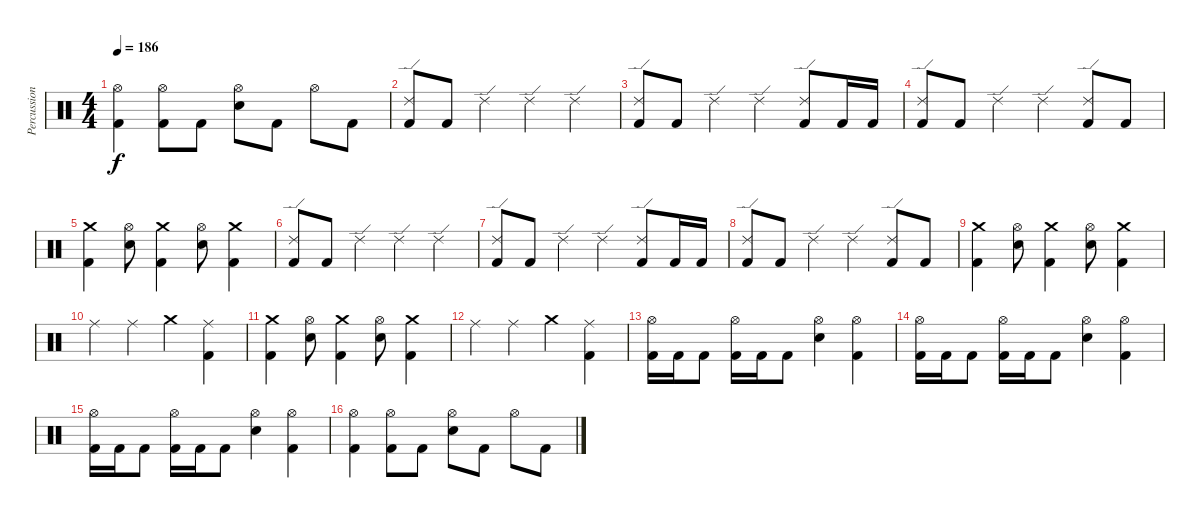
\track ("Percussion" "Percussion") {instrument percussion}
\staff {score}
\articulation defaults
\ts (4 4)
\tempo 186
\clef neutral
\ks c
("Hi-Hat (open)" "Kick (hit) 2").4{dy f} ("Hi-Hat (open)" "Kick (hit) 2").8 "Kick (hit) 2".8 ("Hi-Hat (open)" "Snare (hit) 2").8 "Kick (hit) 2".8 "Hi-Hat (open)".8 "Kick (hit) 2".8 |
("Ride (edge) 2" "Kick (hit) 2").8 "Kick (hit) 2".8 "Ride (edge) 2".4 "Ride (edge) 2".4 "Ride (edge) 2".4 |
("Ride (edge) 2" "Kick (hit) 2").8 "Kick (hit) 2".8 "Ride (edge) 2".4 "Ride (edge) 2".4 ("Ride (edge) 2" "Kick (hit) 2").8 "Kick (hit) 2".16 "Kick (hit) 2".16 |
("Ride (edge) 2" "Kick (hit) 2").8 "Kick (hit) 2".8 "Ride (edge) 2".4 "Ride (edge) 2".4 ("Ride (edge) 2" "Kick (hit) 2").8 "Kick (hit) 2".8 |
("Crash medium (hit)" "Kick (hit) 2").4 ("Hi-Hat (open)" "Snare (hit) 2").8 ("Crash medium (hit)" "Kick (hit) 2").4 ("Hi-Hat (open)" "Snare (hit) 2").8 ("Crash medium (hit)" "Kick (hit) 2").4 |
("Ride (edge) 2" "Kick (hit) 2").8 "Kick (hit) 2".8 "Ride (edge) 2".4 "Ride (edge) 2".4 "Ride (edge) 2".4 |
("Ride (edge) 2" "Kick (hit) 2").8 "Kick (hit) 2".8 "Ride (edge) 2".4 "Ride (edge) 2".4 ("Ride (edge) 2" "Kick (hit) 2").8 "Kick (hit) 2".16 "Kick (hit) 2".16 |
("Ride (edge) 2" "Kick (hit) 2").8 "Kick (hit) 2".8 "Ride (edge) 2".4 "Ride (edge) 2".4 ("Ride (edge) 2" "Kick (hit) 2").8 "Kick (hit) 2".8 |
("Crash medium (hit)" "Kick (hit) 2").4 ("Hi-Hat (open)" "Snare (hit) 2").8 ("Crash medium (hit)" "Kick (hit) 2").4 ("Hi-Hat (open)" "Snare (hit) 2").8 ("Crash medium (hit)" "Kick (hit) 2").4 |
"Ride (middle)".4 "Ride (middle)".4 "Crash medium (hit)".4 ("Ride (middle)" "Kick (hit) 2").4 |
("Crash medium (hit)" "Kick (hit) 2").4 ("Hi-Hat (open)" "Snare (hit) 2").8 ("Crash medium (hit)" "Kick (hit) 2").4 ("Hi-Hat (open)" "Snare (hit) 2").8 ("Crash medium (hit)" "Kick (hit) 2").4 |
"Ride (middle)".4 "Ride (middle)".4 "Crash medium (hit)".4 ("Ride (middle)" "Kick (hit) 2").4 |
("Hi-Hat (open)" "Kick (hit) 2").16 "Kick (hit) 2".16 "Kick (hit) 2".8 ("Hi-Hat (open)" "Kick (hit) 2").16 "Kick (hit) 2".16 "Kick (hit) 2".8 ("Hi-Hat (open)" "Snare (hit) 2").4 ("Hi-Hat (open)" "Kick (hit) 2").4 |
("Hi-Hat (open)" "Kick (hit) 2").16 "Kick (hit) 2".16 "Kick (hit) 2".8 ("Hi-Hat (open)" "Kick (hit) 2").16 "Kick (hit) 2".16 "Kick (hit) 2".8 ("Hi-Hat (open)" "Snare (hit) 2").4 ("Hi-Hat (open)" "Kick (hit) 2").4 |
("Hi-Hat (open)" "Kick (hit) 2").16 "Kick (hit) 2".16 "Kick (hit) 2".8 ("Hi-Hat (open)" "Kick (hit) 2").16 "Kick (hit) 2".16 "Kick (hit) 2".8 ("Hi-Hat (open)" "Snare (hit) 2").4 ("Hi-Hat (open)" "Kick (hit) 2").4 |
("Hi-Hat (open)" "Kick (hit) 2").4 ("Hi-Hat (open)" "Kick (hit) 2").8 "Kick (hit) 2".8 ("Hi-Hat (open)" "Snare (hit) 2").8 "Kick (hit) 2".8 "Hi-Hat (open)".8 "Kick (hit) 2".8
